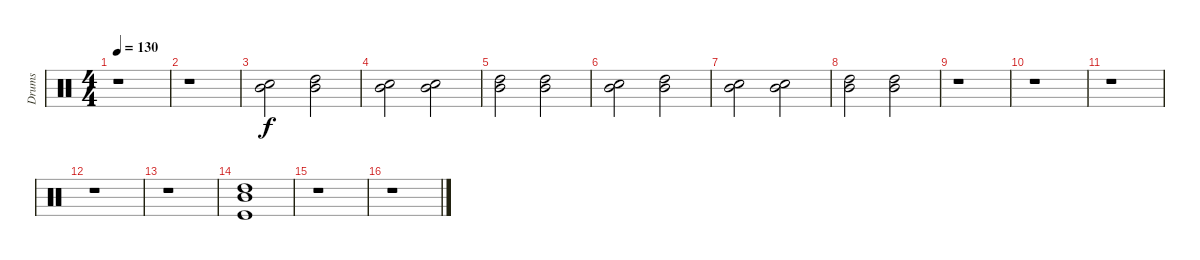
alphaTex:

\track ("Drums" "Drums") {instrument percussion}
\staff {score}
\articulation defaults
\ts (4 4)
\tempo 130
\clef neutral
\ks c
r.1{dy f} |
r.1 |
("Snare (hit) 2" "Mid Tom (hit)").2 ("Mid Tom (hit)" "High Tom (hit)").2 |
("Snare (hit) 2" "Mid Tom (hit)").2 ("Snare (hit) 2" "Mid Tom (hit)").2 |
("Mid Tom (hit)" "High Tom (hit)").2 ("Mid Tom (hit)" "High Tom (hit)").2 |
("Snare (hit) 2" "Mid Tom (hit)").2 ("Mid Tom (hit)" "High Tom (hit)").2 |
("Snare (hit) 2" "Mid Tom (hit)").2 ("Snare (hit) 2" "Mid Tom (hit)").2 |
("Mid Tom (hit)" "High Tom (hit)").2 ("Mid Tom (hit)" "High Tom (hit)").2 |
r.1 |
r.1 |
r.1 |
r.1 |
r.1 |
("Mid Tom (hit)" "High Tom (hit)" "Kick (hit)").1 |
r.1 |
r.1
